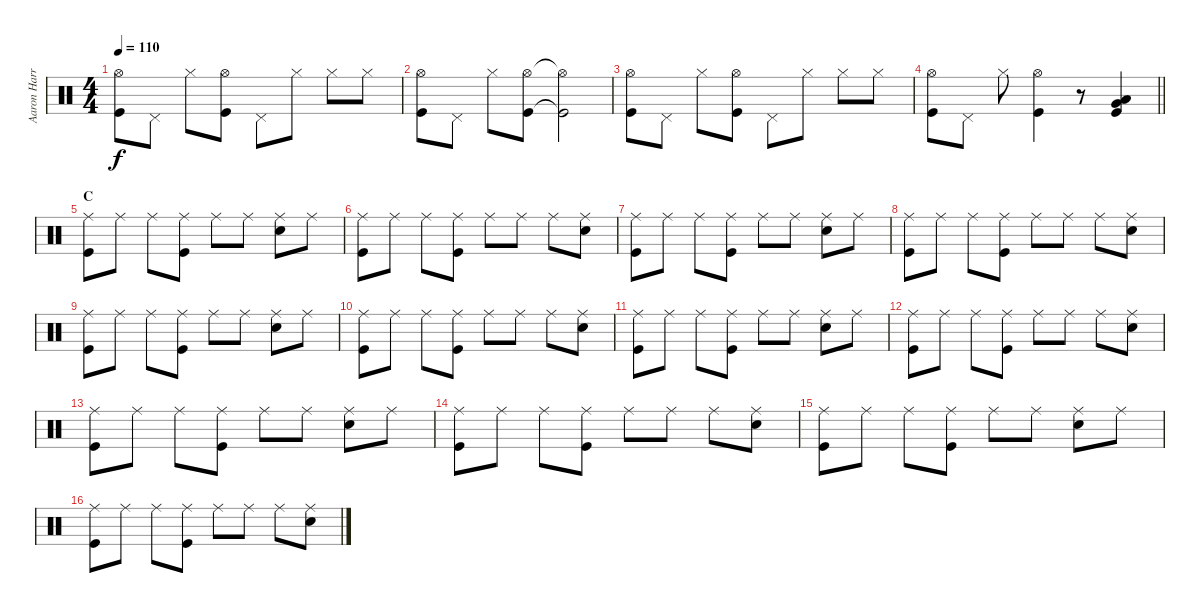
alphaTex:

\track ("Aaron Harris" "Aaron Harr") {instrument percussion}
\staff {score}
\articulation defaults
\ts (4 4)
\tempo 110
\clef neutral
\ks c
("Hi-Hat (open)" "Kick (hit)").8{dy f} "Pedal Hi-Hat (hit)".8 "Hi-Hat (closed)".8 ("Hi-Hat (open)" "Kick (hit)").8 "Pedal Hi-Hat (hit)".8 "Hi-Hat (closed)".8 "Hi-Hat (closed)".8 "Hi-Hat (closed)".8 |
("Hi-Hat (open)" "Kick (hit)").8 "Pedal Hi-Hat (hit)".8 "Hi-Hat (closed)".8 ("Hi-Hat (open)" "Kick (hit)").8 ("Hi-Hat (open)"{t} "Kick (hit)"{t}).2 |
("Hi-Hat (open)" "Kick (hit)").8 "Pedal Hi-Hat (hit)".8 "Hi-Hat (closed)".8 ("Hi-Hat (open)" "Kick (hit)").8 "Pedal Hi-Hat (hit)".8 "Hi-Hat (closed)".8 "Hi-Hat (closed)".8 "Hi-Hat (closed)".8 |
\barLineRight lightlight
("Hi-Hat (open)" "Kick (hit)").8 "Pedal Hi-Hat (hit)".8 "Hi-Hat (closed)".8 ("Hi-Hat (open)" "Kick (hit)").4 r.8 ("Low Tom (hit)" "Very Low Tom (hit)" "Kick (hit)").4 |
\section ("" "C")
("Ride (middle)" "Kick (hit)").8 "Ride (middle)".8 "Ride (middle)".8 ("Ride (middle)" "Kick (hit)").8 "Ride (middle)".8 "Ride (middle)".8 ("Ride (middle)" "Snare (hit) 2").8 "Ride (middle)".8 |
("Ride (middle)" "Kick (hit)").8 "Ride (middle)".8 "Ride (middle)".8 ("Ride (middle)" "Kick (hit)").8 "Ride (middle)".8 "Ride (middle)".8 "Ride (middle)".8 ("Ride (middle)" "Snare (hit) 2").8 |
("Ride (middle)" "Kick (hit)").8 "Ride (middle)".8 "Ride (middle)".8 ("Ride (middle)" "Kick (hit)").8 "Ride (middle)".8 "Ride (middle)".8 ("Ride (middle)" "Snare (hit) 2").8 "Ride (middle)".8 |
("Ride (middle)" "Kick (hit)").8 "Ride (middle)".8 "Ride (middle)".8 ("Ride (middle)" "Kick (hit)").8 "Ride (middle)".8 "Ride (middle)".8 "Ride (middle)".8 ("Ride (middle)" "Snare (hit) 2").8 |
("Ride (middle)" "Kick (hit)").8 "Ride (middle)".8 "Ride (middle)".8 ("Ride (middle)" "Kick (hit)").8 "Ride (middle)".8 "Ride (middle)".8 ("Ride (middle)" "Snare (hit) 2").8 "Ride (middle)".8 |
("Ride (middle)" "Kick (hit)").8 "Ride (middle)".8 "Ride (middle)".8 ("Ride (middle)" "Kick (hit)").8 "Ride (middle)".8 "Ride (middle)".8 "Ride (middle)".8 ("Ride (middle)" "Snare (hit) 2").8 |
("Ride (middle)" "Kick (hit)").8 "Ride (middle)".8 "Ride (middle)".8 ("Ride (middle)" "Kick (hit)").8 "Ride (middle)".8 "Ride (middle)".8 ("Ride (middle)" "Snare (hit) 2").8 "Ride (middle)".8 |
("Ride (middle)" "Kick (hit)").8 "Ride (middle)".8 "Ride (middle)".8 ("Ride (middle)" "Kick (hit)").8 "Ride (middle)".8 "Ride (middle)".8 "Ride (middle)".8 ("Ride (middle)" "Snare (hit) 2").8 |
("Ride (middle)" "Kick (hit)").8 "Ride (middle)".8 "Ride (middle)".8 ("Ride (middle)" "Kick (hit)").8 "Ride (middle)".8 "Ride (middle)".8 ("Ride (middle)" "Snare (hit) 2").8 "Ride (middle)".8 |
("Ride (middle)" "Kick (hit)").8 "Ride (middle)".8 "Ride (middle)".8 ("Ride (middle)" "Kick (hit)").8 "Ride (middle)".8 "Ride (middle)".8 "Ride (middle)".8 ("Ride (middle)" "Snare (hit) 2").8 |
("Ride (middle)" "Kick (hit)").8 "Ride (middle)".8 "Ride (middle)".8 ("Ride (middle)" "Kick (hit)").8 "Ride (middle)".8 "Ride (middle)".8 ("Ride (middle)" "Snare (hit) 2").8 "Ride (middle)".8 |
("Ride (middle)" "Kick (hit)").8 "Ride (middle)".8 "Ride (middle)".8 ("Ride (middle)" "Kick (hit)").8 "Ride (middle)".8 "Ride (middle)".8 "Ride (middle)".8 ("Ride (middle)" "Snare (hit) 2").8
